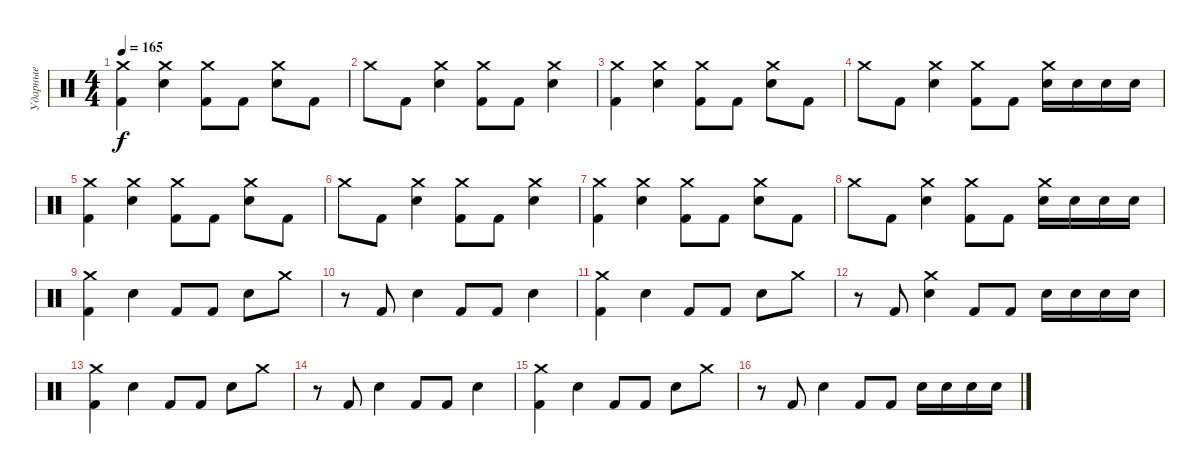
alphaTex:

\track ("Ударные" "Ударные") {instrument percussion}
\staff {score}
\articulation defaults
\ts (4 4)
\tempo 165
\clef neutral
\ks c
("Crash medium (hit)" "Kick (hit) 2").4{dy f} ("Crash medium (hit)" "Snare (hit) 2").4 ("Crash medium (hit)" "Kick (hit) 2").8 "Kick (hit) 2".8 ("Crash medium (hit)" "Snare (hit) 2").8 "Kick (hit) 2".8 |
"Crash medium (hit)".8 "Kick (hit) 2".8 ("Crash medium (hit)" "Snare (hit) 2").4 ("Crash medium (hit)" "Kick (hit) 2").8 "Kick (hit) 2".8 ("Crash medium (hit)" "Snare (hit) 2").4 |
("Crash medium (hit)" "Kick (hit) 2").4 ("Crash medium (hit)" "Snare (hit) 2").4 ("Crash medium (hit)" "Kick (hit) 2").8 "Kick (hit) 2".8 ("Crash medium (hit)" "Snare (hit) 2").8 "Kick (hit) 2".8 |
"Crash medium (hit)".8 "Kick (hit) 2".8 ("Crash medium (hit)" "Snare (hit) 2").4 ("Crash medium (hit)" "Kick (hit) 2").8 "Kick (hit) 2".8 ("Crash medium (hit)" "Snare (hit) 2").16 "Snare (hit) 2".16 "Snare (hit) 2".16 "Snare (hit) 2".16 |
("Crash medium (hit)" "Kick (hit) 2").4 ("Crash medium (hit)" "Snare (hit) 2").4 ("Crash medium (hit)" "Kick (hit) 2").8 "Kick (hit) 2".8 ("Crash medium (hit)" "Snare (hit) 2").8 "Kick (hit) 2".8 |
"Crash medium (hit)".8 "Kick (hit) 2".8 ("Crash medium (hit)" "Snare (hit) 2").4 ("Crash medium (hit)" "Kick (hit) 2").8 "Kick (hit) 2".8 ("Crash medium (hit)" "Snare (hit) 2").4 |
("Crash medium (hit)" "Kick (hit) 2").4 ("Crash medium (hit)" "Snare (hit) 2").4 ("Crash medium (hit)" "Kick (hit) 2").8 "Kick (hit) 2".8 ("Crash medium (hit)" "Snare (hit) 2").8 "Kick (hit) 2".8 |
"Crash medium (hit)".8 "Kick (hit) 2".8 ("Crash medium (hit)" "Snare (hit) 2").4 ("Crash medium (hit)" "Kick (hit) 2").8 "Kick (hit) 2".8 ("Crash medium (hit)" "Snare (hit) 2").16 "Snare (hit) 2".16 "Snare (hit) 2".16 "Snare (hit) 2".16 |
("Crash medium (hit)" "Kick (hit) 2").4 "Snare (hit) 2".4 "Kick (hit) 2".8 "Kick (hit) 2".8 "Snare (hit) 2".8 "Crash medium (hit)".8 |
r.8 "Kick (hit) 2".8 "Snare (hit) 2".4 "Kick (hit) 2".8 "Kick (hit) 2".8 "Snare (hit) 2".4 |
("Crash medium (hit)" "Kick (hit) 2").4 "Snare (hit) 2".4 "Kick (hit) 2".8 "Kick (hit) 2".8 "Snare (hit) 2".8 "Crash medium (hit)".8 |
r.8 "Kick (hit) 2".8 ("Crash medium (hit)" "Snare (hit) 2").4 "Kick (hit) 2".8 "Kick (hit) 2".8 "Snare (hit) 2".16 "Snare (hit) 2".16 "Snare (hit) 2".16 "Snare (hit) 2".16 |
("Crash medium (hit)" "Kick (hit) 2").4 "Snare (hit) 2".4 "Kick (hit) 2".8 "Kick (hit) 2".8 "Snare (hit) 2".8 "Crash medium (hit)".8 |
r.8 "Kick (hit) 2".8 "Snare (hit) 2".4 "Kick (hit) 2".8 "Kick (hit) 2".8 "Snare (hit) 2".4 |
("Crash medium (hit)" "Kick (hit) 2").4 "Snare (hit) 2".4 "Kick (hit) 2".8 "Kick (hit) 2".8 "Snare (hit) 2".8 "Crash medium (hit)".8 |
r.8 "Kick (hit) 2".8 "Snare (hit) 2".4 "Kick (hit) 2".8 "Kick (hit) 2".8 "Snare (hit) 2".16 "Snare (hit) 2".16 "Snare (hit) 2".16 "Snare (hit) 2".16
